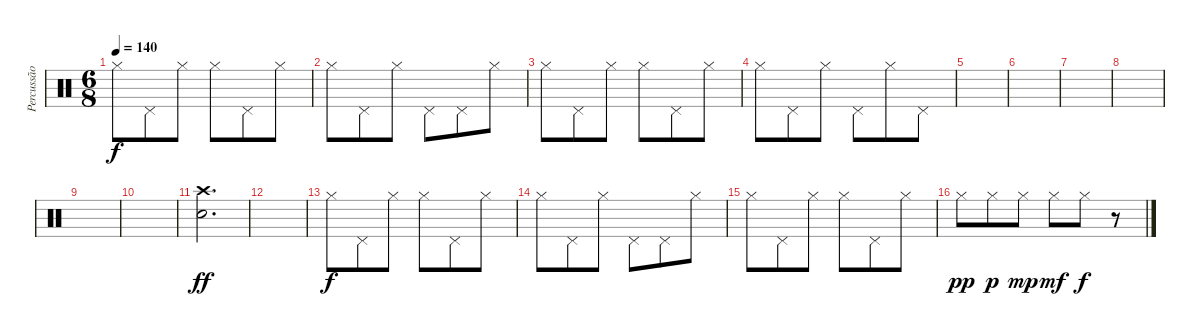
\track ("Percussão" "Percussão") {instrument percussion}
\staff {score}
\articulation defaults
\ts (6 8)
\tempo 140
\clef neutral
\ks c "Hi-Hat (closed)".8{dy f} "Pedal Hi-Hat (hit)".8 "Hi-Hat (closed)".8 "Hi-Hat (closed)".8 "Pedal Hi-Hat (hit)".8 "Hi-Hat (closed)".8
|
"Hi-Hat (closed)".8 "Pedal Hi-Hat (hit)".8 "Hi-Hat (closed)".8 "Pedal Hi-Hat (hit)".8 "Pedal Hi-Hat (hit)".8 "Hi-Hat (closed)".8 |
"Hi-Hat (closed)".8 "Pedal Hi-Hat (hit)".8 "Hi-Hat (closed)".8 "Hi-Hat (closed)".8 "Pedal Hi-Hat (hit)".8 "Hi-Hat (closed)".8 |
"Hi-Hat (closed)".8 "Pedal Hi-Hat (hit)".8 "Hi-Hat (closed)".8 "Pedal Hi-Hat (hit)".8 "Hi-Hat (closed)".8 "Pedal Hi-Hat (hit)".8 |
|
|
|
|
|
|
("Crash high (hit)" "Snare (hit) 2").2{d dy ff} |
|
"Hi-Hat (closed)".8{dy f} "Pedal Hi-Hat (hit)".8 "Hi-Hat (closed)".8 "Hi-Hat (closed)".8 "Pedal Hi-Hat (hit)".8 "Hi-Hat (closed)".8 |
"Hi-Hat (closed)".8 "Pedal Hi-Hat (hit)".8 "Hi-Hat (closed)".8 "Pedal Hi-Hat (hit)".8 "Pedal Hi-Hat (hit)".8 "Hi-Hat (closed)".8 |
"Hi-Hat (closed)".8 "Pedal Hi-Hat (hit)".8 "Hi-Hat (closed)".8 "Hi-Hat (closed)".8 "Pedal Hi-Hat (hit)".8 "Hi-Hat (closed)".8 |
"Hi-Hat (closed)".8{dy pp} "Hi-Hat (closed)".8{dy p} "Hi-Hat (closed)".8{dy mp} "Hi-Hat (closed)".8{dy mf} "Hi-Hat (closed)".8{dy f} r.8
